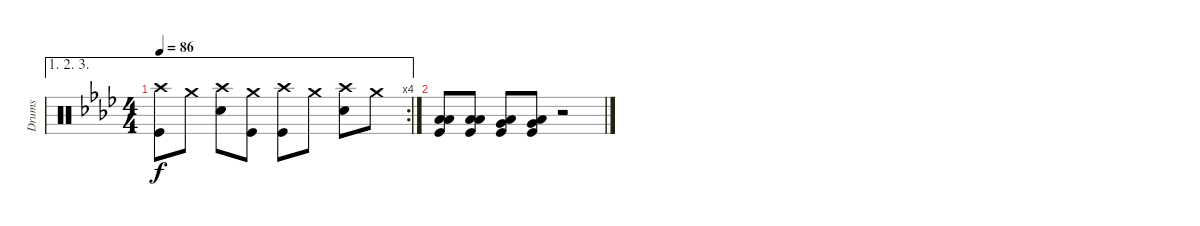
\track ("Drums" "Drums") {instrument percussion}
\staff {score}
\articulation defaults
\ae (1 2 3)
\rc 4
\ts (4 4)
\tempo 86
\clef neutral
\ks ab
("Crash high (hit)" "Kick (hit)").8{dy f} "Crash medium (hit)".8 ("Crash high (hit)" "Snare (hit) 2").8 ("Crash medium (hit)" "Kick (hit)").8 ("Crash high (hit)" "Kick (hit)").8 "Crash medium (hit)".8 ("Crash high (hit)" "Snare (hit) 2").8 "Crash medium (hit)".8 |
("Kick (hit)" "Low Floor Tom (hit)" "Low Tom (hit)").8 ("Kick (hit)" "Low Floor Tom (hit)" "Low Tom (hit)").8 ("Kick (hit)" "Low Floor Tom (hit)" "Very Low Tom (hit)").8 ("Kick (hit)" "Low Floor Tom (hit)" "Very Low Tom (hit)").8 r.2
